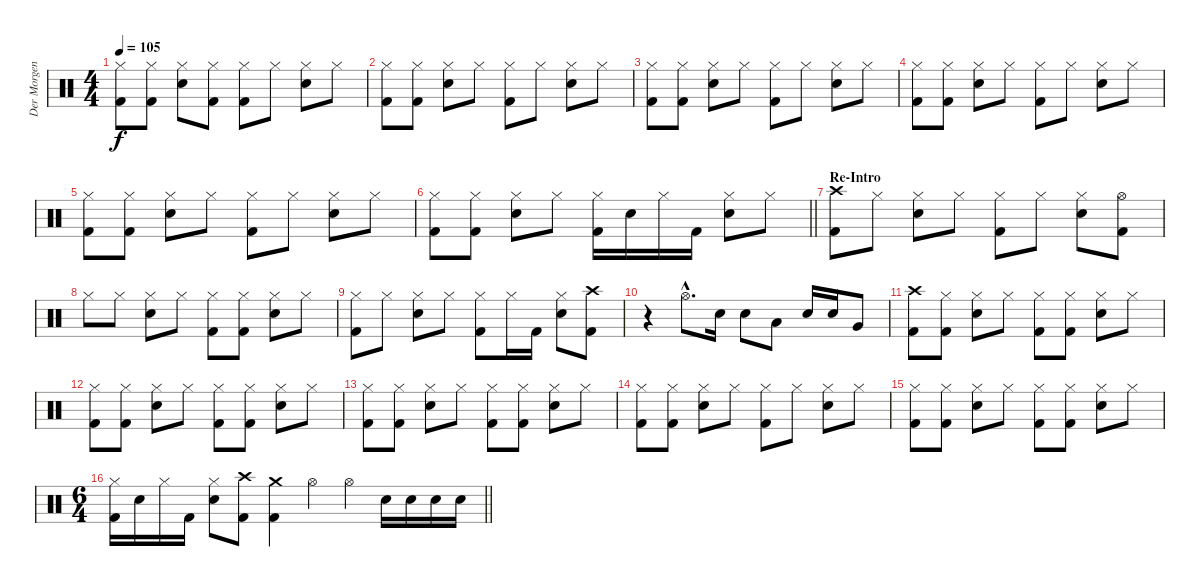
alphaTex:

\track ("Der Morgenstern" "Der Morgen") {instrument percussion}
\staff {score}
\articulation defaults
\ts (4 4)
\tempo 105
\clef neutral
\ks c
("Hi-Hat (closed)" "Kick (hit) 2").8{dy f} ("Hi-Hat (closed)" "Kick (hit) 2").8 ("Hi-Hat (closed)" "Electric Snare (hit)").8 ("Hi-Hat (closed)" "Kick (hit) 2").8 ("Hi-Hat (closed)" "Kick (hit) 2").8 "Hi-Hat (closed)".8 ("Hi-Hat (closed)" "Electric Snare (hit)").8 "Hi-Hat (closed)".8 |
("Hi-Hat (closed)" "Kick (hit) 2").8 ("Hi-Hat (closed)" "Kick (hit) 2").8 ("Hi-Hat (closed)" "Electric Snare (hit)").8 "Hi-Hat (closed)".8 ("Hi-Hat (closed)" "Kick (hit) 2").8 "Hi-Hat (closed)".8 ("Hi-Hat (closed)" "Electric Snare (hit)").8 "Hi-Hat (closed)".8 |
("Hi-Hat (closed)" "Kick (hit) 2").8 ("Hi-Hat (closed)" "Kick (hit) 2").8 ("Hi-Hat (closed)" "Electric Snare (hit)").8 "Hi-Hat (closed)".8 ("Hi-Hat (closed)" "Kick (hit) 2").8 "Hi-Hat (closed)".8 ("Hi-Hat (closed)" "Electric Snare (hit)").8 "Hi-Hat (closed)".8 |
("Hi-Hat (closed)" "Kick (hit) 2").8 ("Hi-Hat (closed)" "Kick (hit) 2").8 ("Hi-Hat (closed)" "Electric Snare (hit)").8 "Hi-Hat (closed)".8 ("Hi-Hat (closed)" "Kick (hit) 2").8 "Hi-Hat (closed)".8 ("Hi-Hat (closed)" "Electric Snare (hit)").8 "Hi-Hat (closed)".8 |
("Hi-Hat (closed)" "Kick (hit) 2").8 ("Hi-Hat (closed)" "Kick (hit) 2").8 ("Hi-Hat (closed)" "Electric Snare (hit)").8 "Hi-Hat (closed)".8 ("Hi-Hat (closed)" "Kick (hit) 2").8 "Hi-Hat (closed)".8 ("Hi-Hat (closed)" "Electric Snare (hit)").8 "Hi-Hat (closed)".8 |
\barLineRight lightlight
("Hi-Hat (closed)" "Kick (hit) 2").8 ("Hi-Hat (closed)" "Kick (hit) 2").8 ("Hi-Hat (closed)" "Electric Snare (hit)").8 "Hi-Hat (closed)".8 ("Hi-Hat (closed)" "Kick (hit) 2").16 "Electric Snare (hit)".16 "Hi-Hat (closed)".16 "Kick (hit) 2".16 ("Hi-Hat (closed)" "Electric Snare (hit)").8 "Hi-Hat (closed)".8 |
\section ("" "Re-Intro")
("Crash high (hit)" "Kick (hit) 2").8 "Hi-Hat (closed)".8 ("Hi-Hat (closed)" "Electric Snare (hit)").8 "Hi-Hat (closed)".8 ("Hi-Hat (closed)" "Kick (hit) 2").8 "Hi-Hat (closed)".8 ("Hi-Hat (closed)" "Electric Snare (hit)").8 ("Hi-Hat (open)" "Kick (hit) 2").8 |
"Hi-Hat (closed)".8 "Hi-Hat (closed)".8 ("Hi-Hat (closed)" "Electric Snare (hit)").8 "Hi-Hat (closed)".8 ("Hi-Hat (closed)" "Kick (hit) 2").8 ("Hi-Hat (closed)" "Kick (hit) 2").8 ("Hi-Hat (closed)" "Electric Snare (hit)").8 "Hi-Hat (closed)".8 |
("Hi-Hat (closed)" "Kick (hit) 2").8 "Hi-Hat (closed)".8 ("Hi-Hat (closed)" "Electric Snare (hit)").8 "Hi-Hat (closed)".8 ("Hi-Hat (closed)" "Kick (hit) 2").8 "Hi-Hat (closed)".16 "Kick (hit) 2".16 ("Hi-Hat (closed)" "Electric Snare (hit)").8 ("Crash high (hit)" "Kick (hit) 2").8 |
r.4 "Hi-Hat (open)"{hac}.8{d} "Electric Snare (hit)".16 "Electric Snare (hit)".8 "Low Tom (hit)".8 "Electric Snare (hit)".16 "Electric Snare (hit)".16 "Very Low Tom (hit)".8 |
("Crash high (hit)" "Kick (hit) 2").8 ("Hi-Hat (closed)" "Kick (hit) 2").8 ("Hi-Hat (closed)" "Electric Snare (hit)").8 "Hi-Hat (closed)".8 ("Hi-Hat (closed)" "Kick (hit) 2").8 ("Hi-Hat (closed)" "Kick (hit) 2").8 ("Hi-Hat (closed)" "Electric Snare (hit)").8 "Hi-Hat (closed)".8 |
("Hi-Hat (closed)" "Kick (hit) 2").8 ("Hi-Hat (closed)" "Kick (hit) 2").8 ("Hi-Hat (closed)" "Electric Snare (hit)").8 "Hi-Hat (closed)".8 ("Hi-Hat (closed)" "Kick (hit) 2").8 ("Hi-Hat (closed)" "Kick (hit) 2").8 ("Hi-Hat (closed)" "Electric Snare (hit)").8 "Hi-Hat (closed)".8 |
("Hi-Hat (closed)" "Kick (hit) 2").8 ("Hi-Hat (closed)" "Kick (hit) 2").8 ("Hi-Hat (closed)" "Electric Snare (hit)").8 "Hi-Hat (closed)".8 ("Hi-Hat (closed)" "Kick (hit) 2").8 ("Hi-Hat (closed)" "Kick (hit) 2").8 ("Hi-Hat (closed)" "Electric Snare (hit)").8 "Hi-Hat (closed)".8 |
("Hi-Hat (closed)" "Kick (hit) 2").8 ("Hi-Hat (closed)" "Kick (hit) 2").8 ("Hi-Hat (closed)" "Electric Snare (hit)").8 "Hi-Hat (closed)".8 ("Hi-Hat (closed)" "Kick (hit) 2").8 "Hi-Hat (closed)".8 ("Hi-Hat (closed)" "Electric Snare (hit)").8 "Hi-Hat (closed)".8 |
("Hi-Hat (closed)" "Kick (hit) 2").8 ("Hi-Hat (closed)" "Kick (hit) 2").8 ("Hi-Hat (closed)" "Electric Snare (hit)").8 "Hi-Hat (closed)".8 ("Hi-Hat (closed)" "Kick (hit) 2").8 ("Hi-Hat (closed)" "Kick (hit) 2").8 ("Hi-Hat (closed)" "Electric Snare (hit)").8 "Hi-Hat (closed)".8 |
\ts (6 4)
\barLineRight lightlight
("Hi-Hat (closed)" "Kick (hit) 2").16 "Electric Snare (hit)".16 "Hi-Hat (closed)".16 "Kick (hit) 2".16 ("Hi-Hat (closed)" "Electric Snare (hit)").8 ("Crash high (hit)" "Kick (hit) 2").8 ("Crash medium (hit)" "Kick (hit) 2").4 "Hi-Hat (open)".4 "Hi-Hat (open)".4 "Electric Snare (hit)".16 "Electric Snare (hit)".16 "Electric Snare (hit)".16 "Electric Snare (hit)".16
